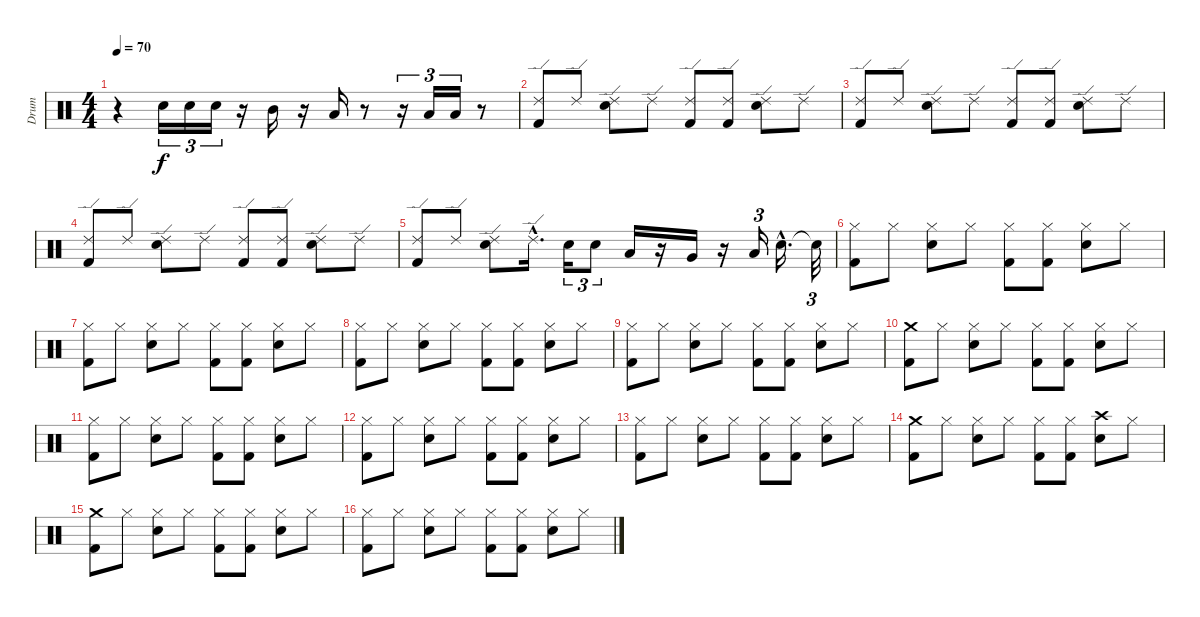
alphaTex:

\track ("Drum" "Drum") {instrument percussion}
\staff {score}
\articulation defaults
\ts (4 4)
\tempo 70
\clef neutral
\ks c
r.4{dy f} "Snare (hit) 2".16{tu (3 2)} "Snare (hit) 2".16{tu (3 2)} "Snare (hit) 2".16{tu (3 2)} r.16 "Mid Tom (hit)".16 r.16 "Low Tom (hit)".16 r.8 r.16{tu (3 2)} "Low Floor Tom (hit)".16{tu (3 2)} "Low Floor Tom (hit)".16{tu (3 2)} r.8 |
("Ride (edge) 2" "Kick (hit) 2").8 "Ride (edge) 2".8 ("Ride (edge) 2" "Snare (hit) 2").8 "Ride (edge) 2".8 ("Ride (edge) 2" "Kick (hit) 2").8 ("Ride (edge) 2" "Kick (hit) 2").8 ("Ride (edge) 2" "Snare (hit) 2").8 "Ride (edge) 2".8 |
("Ride (edge) 2" "Kick (hit) 2").8 "Ride (edge) 2".8 ("Ride (edge) 2" "Snare (hit) 2").8 "Ride (edge) 2".8 ("Ride (edge) 2" "Kick (hit) 2").8 ("Ride (edge) 2" "Kick (hit) 2").8 ("Ride (edge) 2" "Snare (hit) 2").8 "Ride (edge) 2".8 |
("Ride (edge) 2" "Kick (hit) 2").8 "Ride (edge) 2".8 ("Ride (edge) 2" "Snare (hit) 2").8 "Ride (edge) 2".8 ("Ride (edge) 2" "Kick (hit) 2").8 ("Ride (edge) 2" "Kick (hit) 2").8 ("Ride (edge) 2" "Snare (hit) 2").8 "Ride (edge) 2".8 |
("Ride (edge) 2" "Kick (hit) 2").8 "Ride (edge) 2".8 ("Ride (edge) 2" "Snare (hit) 2").8 "Ride (edge) 2"{hac}.16{d} "Snare (hit) 2".16{tu (3 2)} "Snare (hit) 2".8{tu (3 2)} "Low Tom (hit)".16 r.16 "Very Low Tom (hit)".16 r.16 "Low Floor Tom (hit)".16{tu (3 2)} "Snare (hit) 2"{hac}.16{d} "Snare (hit)"{t}.32{tu (3 2)} |
("Hi-Hat (closed)" "Kick (hit) 2").8 "Hi-Hat (closed)".8 ("Hi-Hat (closed)" "Snare (hit) 2").8 "Hi-Hat (closed)".8 ("Hi-Hat (closed)" "Kick (hit) 2").8 ("Hi-Hat (closed)" "Kick (hit) 2").8 ("Hi-Hat (closed)" "Snare (hit) 2").8 "Hi-Hat (closed)".8 |
("Hi-Hat (closed)" "Kick (hit) 2").8 "Hi-Hat (closed)".8 ("Hi-Hat (closed)" "Snare (hit) 2").8 "Hi-Hat (closed)".8 ("Hi-Hat (closed)" "Kick (hit) 2").8 ("Hi-Hat (closed)" "Kick (hit) 2").8 ("Hi-Hat (closed)" "Snare (hit) 2").8 "Hi-Hat (closed)".8 |
("Hi-Hat (closed)" "Kick (hit) 2").8 "Hi-Hat (closed)".8 ("Hi-Hat (closed)" "Snare (hit) 2").8 "Hi-Hat (closed)".8 ("Hi-Hat (closed)" "Kick (hit) 2").8 ("Hi-Hat (closed)" "Kick (hit) 2").8 ("Hi-Hat (closed)" "Snare (hit) 2").8 "Hi-Hat (closed)".8 |
("Hi-Hat (closed)" "Kick (hit) 2").8 "Hi-Hat (closed)".8 ("Hi-Hat (closed)" "Snare (hit) 2").8 "Hi-Hat (closed)".8 ("Hi-Hat (closed)" "Kick (hit) 2").8 ("Hi-Hat (closed)" "Kick (hit) 2").8 ("Hi-Hat (closed)" "Snare (hit) 2").8 "Hi-Hat (closed)".8 |
("Crash medium (hit)" "Kick (hit) 2").8 "Hi-Hat (closed)".8 ("Hi-Hat (closed)" "Snare (hit) 2").8 "Hi-Hat (closed)".8 ("Hi-Hat (closed)" "Kick (hit) 2").8 ("Hi-Hat (closed)" "Kick (hit) 2").8 ("Hi-Hat (closed)" "Snare (hit) 2").8 "Hi-Hat (closed)".8 |
("Hi-Hat (closed)" "Kick (hit) 2").8 "Hi-Hat (closed)".8 ("Hi-Hat (closed)" "Snare (hit) 2").8 "Hi-Hat (closed)".8 ("Hi-Hat (closed)" "Kick (hit) 2").8 ("Hi-Hat (closed)" "Kick (hit) 2").8 ("Hi-Hat (closed)" "Snare (hit) 2").8 "Hi-Hat (closed)".8 |
("Hi-Hat (closed)" "Kick (hit) 2").8 "Hi-Hat (closed)".8 ("Hi-Hat (closed)" "Snare (hit) 2").8 "Hi-Hat (closed)".8 ("Hi-Hat (closed)" "Kick (hit) 2").8 ("Hi-Hat (closed)" "Kick (hit) 2").8 ("Hi-Hat (closed)" "Snare (hit) 2").8 "Hi-Hat (closed)".8 |
("Hi-Hat (closed)" "Kick (hit) 2").8 "Hi-Hat (closed)".8 ("Hi-Hat (closed)" "Snare (hit) 2").8 "Hi-Hat (closed)".8 ("Hi-Hat (closed)" "Kick (hit) 2").8 ("Hi-Hat (closed)" "Kick (hit) 2").8 ("Hi-Hat (closed)" "Snare (hit) 2").8 "Hi-Hat (closed)".8 |
("Crash medium (hit)" "Kick (hit) 2").8 "Hi-Hat (closed)".8 ("Hi-Hat (closed)" "Snare (hit) 2").8 "Hi-Hat (closed)".8 ("Hi-Hat (closed)" "Kick (hit) 2").8 ("Hi-Hat (closed)" "Kick (hit) 2").8 ("Crash high (hit)" "Snare (hit) 2").8 "Hi-Hat (closed)".8 |
("Crash medium (hit)" "Kick (hit) 2").8 "Hi-Hat (closed)".8 ("Hi-Hat (closed)" "Snare (hit) 2").8 "Hi-Hat (closed)".8 ("Hi-Hat (closed)" "Kick (hit) 2").8 ("Hi-Hat (closed)" "Kick (hit) 2").8 ("Hi-Hat (closed)" "Snare (hit) 2").8 "Hi-Hat (closed)".8 |
("Hi-Hat (closed)" "Kick (hit) 2").8 "Hi-Hat (closed)".8 ("Hi-Hat (closed)" "Snare (hit) 2").8 "Hi-Hat (closed)".8 ("Hi-Hat (closed)" "Kick (hit) 2").8 ("Hi-Hat (closed)" "Kick (hit) 2").8 ("Hi-Hat (closed)" "Snare (hit) 2").8 "Hi-Hat (closed)".8
